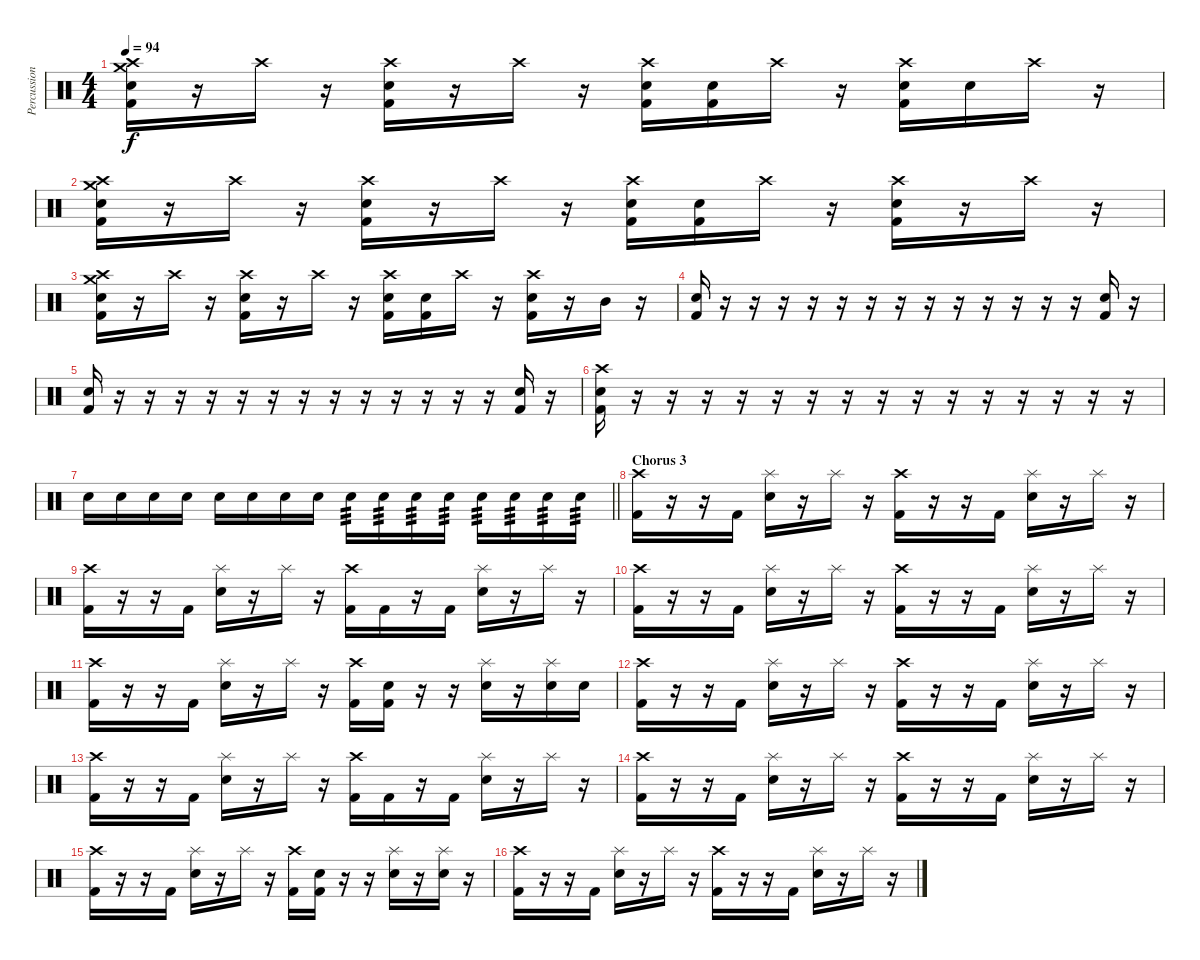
\track ("Percussion" "Percussion") {instrument percussion}
\staff {score}
\articulation defaults
\ts (4 4)
\tempo 94
\clef neutral
\ks c
("Kick (hit) 2" "Snare (hit) 2" "Crash high (hit)" "Crash medium (hit)").16{dy f} r.16 "Crash high (hit)".16 r.16 ("Kick (hit) 2" "Snare (hit) 2" "Crash high (hit)").16 r.16 "Crash high (hit)".16 r.16 ("Kick (hit) 2" "Snare (hit) 2" "Crash high (hit)").16 ("Kick (hit) 2" "Snare (hit) 2").16 "Crash high (hit)".16 r.16 ("Kick (hit) 2" "Snare (hit) 2" "Crash high (hit)").16 "Snare (hit) 2".16 "Crash high (hit)".16 r.16 |
("Kick (hit) 2" "Snare (hit) 2" "Crash high (hit)" "Crash medium (hit)").16 r.16 "Crash high (hit)".16 r.16 ("Kick (hit) 2" "Snare (hit) 2" "Crash high (hit)").16 r.16 "Crash high (hit)".16 r.16 ("Kick (hit) 2" "Snare (hit) 2" "Crash high (hit)").16 ("Kick (hit) 2" "Snare (hit) 2").16 "Crash high (hit)".16 r.16 ("Kick (hit) 2" "Snare (hit) 2" "Crash high (hit)").16 r.16 "Crash high (hit)".16 r.16 |
("Kick (hit) 2" "Snare (hit) 2" "Crash high (hit)" "Crash medium (hit)").16 r.16 "Crash high (hit)".16 r.16 ("Kick (hit) 2" "Snare (hit) 2" "Crash high (hit)").16 r.16 "Crash high (hit)".16 r.16 ("Kick (hit) 2" "Snare (hit) 2" "Crash high (hit)").16 ("Kick (hit) 2" "Snare (hit) 2").16 "Crash high (hit)".16 r.16 ("Kick (hit) 2" "Snare (hit) 2" "Crash high (hit)").16 r.16 "Mid Tom (hit)".16 r.16 |
("Kick (hit) 2" "Snare (hit) 2").16 r.16 r.16 r.16 r.16 r.16 r.16 r.16 r.16 r.16 r.16 r.16 r.16 r.16 ("Kick (hit) 2" "Snare (hit) 2").16 r.16 |
("Kick (hit) 2" "Snare (hit) 2").16 r.16 r.16 r.16 r.16 r.16 r.16 r.16 r.16 r.16 r.16 r.16 r.16 r.16 ("Kick (hit) 2" "Snare (hit) 2").16 r.16 |
("Kick (hit) 2" "Snare (hit) 2" "Crash high (hit)").16 r.16 r.16 r.16 r.16 r.16 r.16 r.16 r.16 r.16 r.16 r.16 r.16 r.16 r.16 r.16 |
\barLineRight lightlight "Snare (hit) 2".16 "Snare (hit) 2".16 "Snare (hit) 2".16 "Snare (hit) 2".16 "Snare (hit) 2".16 "Snare (hit) 2".16 "Snare (hit) 2".16 "Snare (hit) 2".16 "Snare (hit) 2".16{tp 3} "Snare (hit) 2".16{tp 3} "Snare (hit) 2".16{tp 3} "Snare (hit) 2".16{tp 3} "Snare (hit) 2".16{tp 3} "Snare (hit) 2".16{tp 3} "Snare (hit) 2".16{tp 3} "Snare (hit) 2".16{tp 3}
|
\section ("" "Chorus 3")
("Kick (hit) 2" "Crash high (hit)").16 r.16 r.16 "Kick (hit) 2".16 ("Snare (hit) 2" "Splash (hit)").16 r.16 "Splash (hit)".16 r.16 ("Kick (hit) 2" "Crash high (hit)").16 r.16 r.16 "Kick (hit) 2".16 ("Snare (hit) 2" "Splash (hit)").16 r.16 "Splash (hit)".16 r.16 |
("Kick (hit) 2" "Crash high (hit)").16 r.16 r.16 "Kick (hit) 2".16 ("Snare (hit) 2" "Splash (hit)").16 r.16 "Splash (hit)".16 r.16 ("Kick (hit) 2" "Crash high (hit)").16 "Kick (hit) 2".16 r.16 "Kick (hit) 2".16 ("Snare (hit) 2" "Splash (hit)").16 r.16 "Splash (hit)".16 r.16 |
("Kick (hit) 2" "Crash high (hit)").16 r.16 r.16 "Kick (hit) 2".16 ("Snare (hit) 2" "Splash (hit)").16 r.16 "Splash (hit)".16 r.16 ("Kick (hit) 2" "Crash high (hit)").16 r.16 r.16 "Kick (hit) 2".16 ("Snare (hit) 2" "Splash (hit)").16 r.16 "Splash (hit)".16 r.16 |
("Kick (hit) 2" "Crash high (hit)").16 r.16 r.16 "Kick (hit) 2".16 ("Snare (hit) 2" "Splash (hit)").16 r.16 "Splash (hit)".16 r.16 ("Kick (hit) 2" "Crash high (hit)").16 ("Kick (hit) 2" "Snare (hit) 2").16 r.16 r.16 ("Snare (hit) 2" "Splash (hit)").16 r.16 ("Snare (hit) 2" "Splash (hit)").16 "Snare (hit) 2".16 |
("Kick (hit) 2" "Crash high (hit)").16 r.16 r.16 "Kick (hit) 2".16 ("Snare (hit) 2" "Splash (hit)").16 r.16 "Splash (hit)".16 r.16 ("Kick (hit) 2" "Crash high (hit)").16 r.16 r.16 "Kick (hit) 2".16 ("Snare (hit) 2" "Splash (hit)").16 r.16 "Splash (hit)".16 r.16 |
("Kick (hit) 2" "Crash high (hit)").16 r.16 r.16 "Kick (hit) 2".16 ("Snare (hit) 2" "Splash (hit)").16 r.16 "Splash (hit)".16 r.16 ("Kick (hit) 2" "Crash high (hit)").16 "Kick (hit) 2".16 r.16 "Kick (hit) 2".16 ("Snare (hit) 2" "Splash (hit)").16 r.16 "Splash (hit)".16 r.16 |
("Kick (hit) 2" "Crash high (hit)").16 r.16 r.16 "Kick (hit) 2".16 ("Snare (hit) 2" "Splash (hit)").16 r.16 "Splash (hit)".16 r.16 ("Kick (hit) 2" "Crash high (hit)").16 r.16 r.16 "Kick (hit) 2".16 ("Snare (hit) 2" "Splash (hit)").16 r.16 "Splash (hit)".16 r.16 |
("Kick (hit) 2" "Crash high (hit)").16 r.16 r.16 "Kick (hit) 2".16 ("Snare (hit) 2" "Splash (hit)").16 r.16 "Splash (hit)".16 r.16 ("Kick (hit) 2" "Crash high (hit)").16 ("Kick (hit) 2" "Snare (hit) 2").16 r.16 r.16 ("Snare (hit) 2" "Splash (hit)").16 r.16 ("Snare (hit) 2" "Splash (hit)").16 r.16 |
("Kick (hit) 2" "Crash high (hit)").16 r.16 r.16 "Kick (hit) 2".16 ("Snare (hit) 2" "Splash (hit)").16 r.16 "Splash (hit)".16 r.16 ("Kick (hit) 2" "Crash high (hit)").16 r.16 r.16 "Kick (hit) 2".16 ("Snare (hit) 2" "Splash (hit)").16 r.16 "Splash (hit)".16 r.16
